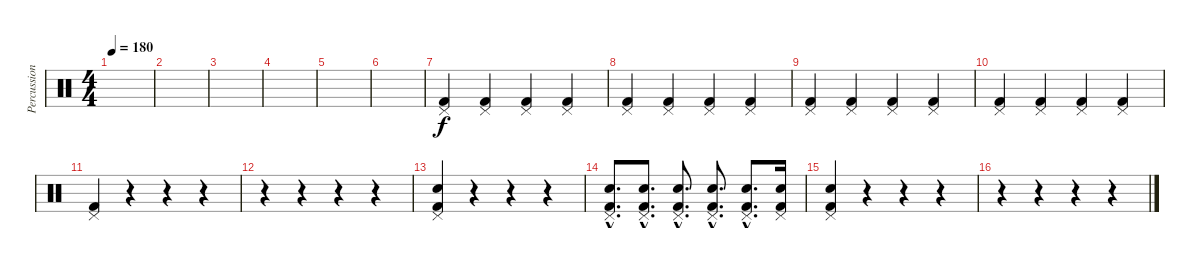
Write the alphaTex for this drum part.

\track ("Percussion" "Percussion") {instrument percussion}
\staff {score}
\articulation defaults
\ts (4 4)
\tempo 180
\clef neutral
\ks c
|
|
|
|
|
|
("Pedal Hi-Hat (hit)" "Kick (hit) 2").4 ("Pedal Hi-Hat (hit)" "Kick (hit) 2").4 ("Pedal Hi-Hat (hit)" "Kick (hit) 2").4 ("Pedal Hi-Hat (hit)" "Kick (hit) 2").4 |
("Pedal Hi-Hat (hit)" "Kick (hit) 2").4 ("Pedal Hi-Hat (hit)" "Kick (hit) 2").4 ("Pedal Hi-Hat (hit)" "Kick (hit) 2").4 ("Pedal Hi-Hat (hit)" "Kick (hit) 2").4 |
("Pedal Hi-Hat (hit)" "Kick (hit) 2").4 ("Pedal Hi-Hat (hit)" "Kick (hit) 2").4 ("Pedal Hi-Hat (hit)" "Kick (hit) 2").4 ("Pedal Hi-Hat (hit)" "Kick (hit) 2").4 |
("Pedal Hi-Hat (hit)" "Kick (hit) 2").4 ("Pedal Hi-Hat (hit)" "Kick (hit) 2").4 ("Pedal Hi-Hat (hit)" "Kick (hit) 2").4 ("Pedal Hi-Hat (hit)" "Kick (hit) 2").4 |
("Pedal Hi-Hat (hit)" "Kick (hit) 2").4 r.4 r.4 r.4 |
r.4 r.4 r.4 r.4 |
("Snare (hit) 2" "Pedal Hi-Hat (hit)" "Kick (hit) 2").4 r.4 r.4 r.4 |
("Snare (hit) 2"{hac} "Pedal Hi-Hat (hit)"{hac} "Kick (hit) 2"{hac}).8{d} ("Snare (hit) 2"{hac} "Pedal Hi-Hat (hit)"{hac} "Kick (hit) 2"{hac}).8{d} ("Snare (hit) 2"{hac} "Pedal Hi-Hat (hit)"{hac} "Kick (hit) 2"{hac}).8{d} ("Snare (hit) 2"{hac} "Pedal Hi-Hat (hit)"{hac} "Kick (hit) 2"{hac}).8{d} ("Snare (hit) 2"{hac} "Pedal Hi-Hat (hit)"{hac} "Kick (hit) 2"{hac}).8{d} ("Snare (hit) 2" "Pedal Hi-Hat (hit)" "Kick (hit) 2").16 |
("Snare (hit) 2" "Pedal Hi-Hat (hit)" "Kick (hit) 2").4 r.4 r.4 r.4 |
r.4 r.4 r.4 r.4
